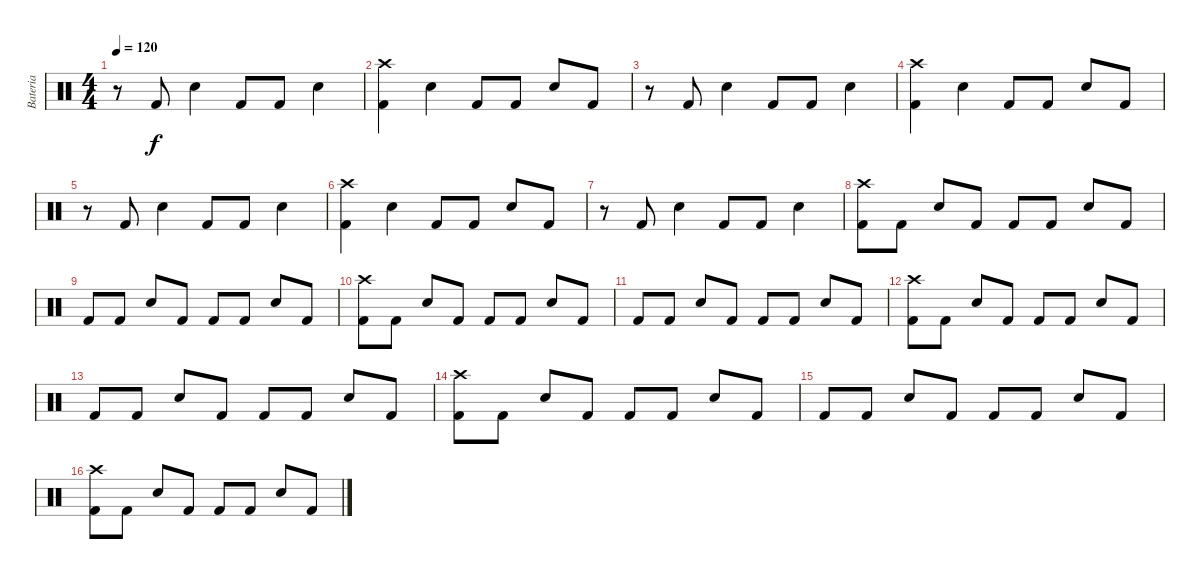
\track ("Bateria" "Bateria") {instrument percussion}
\staff {score}
\articulation defaults
\ts (4 4)
\tempo 120
\clef neutral
\ks c
r.8{dy f} "Kick (hit) 2".8 "Snare (hit) 2".4 "Kick (hit) 2".8 "Kick (hit) 2".8 "Snare (hit) 2".4 |
("Kick (hit) 2" "Crash high (hit)").4 "Snare (hit) 2".4 "Kick (hit) 2".8 "Kick (hit) 2".8 "Snare (hit) 2".8 "Kick (hit) 2".8 |
r.8 "Kick (hit) 2".8 "Snare (hit) 2".4 "Kick (hit) 2".8 "Kick (hit) 2".8 "Snare (hit) 2".4 |
("Kick (hit) 2" "Crash high (hit)").4 "Snare (hit) 2".4 "Kick (hit) 2".8 "Kick (hit) 2".8 "Snare (hit) 2".8 "Kick (hit) 2".8 |
r.8 "Kick (hit) 2".8 "Snare (hit) 2".4 "Kick (hit) 2".8 "Kick (hit) 2".8 "Snare (hit) 2".4 |
("Kick (hit) 2" "Crash high (hit)").4 "Snare (hit) 2".4 "Kick (hit) 2".8 "Kick (hit) 2".8 "Snare (hit) 2".8 "Kick (hit) 2".8 |
r.8 "Kick (hit) 2".8 "Snare (hit) 2".4 "Kick (hit) 2".8 "Kick (hit) 2".8 "Snare (hit) 2".4 |
("Kick (hit) 2" "Crash high (hit)").8 "Kick (hit) 2".8 "Snare (hit) 2".8 "Kick (hit) 2".8 "Kick (hit) 2".8 "Kick (hit) 2".8 "Snare (hit) 2".8 "Kick (hit) 2".8 |
"Kick (hit) 2".8 "Kick (hit) 2".8 "Snare (hit) 2".8 "Kick (hit) 2".8 "Kick (hit) 2".8 "Kick (hit) 2".8 "Snare (hit) 2".8 "Kick (hit) 2".8 |
("Kick (hit) 2" "Crash high (hit)").8 "Kick (hit) 2".8 "Snare (hit) 2".8 "Kick (hit) 2".8 "Kick (hit) 2".8 "Kick (hit) 2".8 "Snare (hit) 2".8 "Kick (hit) 2".8 |
"Kick (hit) 2".8 "Kick (hit) 2".8 "Snare (hit) 2".8 "Kick (hit) 2".8 "Kick (hit) 2".8 "Kick (hit) 2".8 "Snare (hit) 2".8 "Kick (hit) 2".8 |
("Kick (hit) 2" "Crash high (hit)").8 "Kick (hit) 2".8 "Snare (hit) 2".8 "Kick (hit) 2".8 "Kick (hit) 2".8 "Kick (hit) 2".8 "Snare (hit) 2".8 "Kick (hit) 2".8 |
"Kick (hit) 2".8 "Kick (hit) 2".8 "Snare (hit) 2".8 "Kick (hit) 2".8 "Kick (hit) 2".8 "Kick (hit) 2".8 "Snare (hit) 2".8 "Kick (hit) 2".8 |
("Kick (hit) 2" "Crash high (hit)").8 "Kick (hit) 2".8 "Snare (hit) 2".8 "Kick (hit) 2".8 "Kick (hit) 2".8 "Kick (hit) 2".8 "Snare (hit) 2".8 "Kick (hit) 2".8 |
"Kick (hit) 2".8 "Kick (hit) 2".8 "Snare (hit) 2".8 "Kick (hit) 2".8 "Kick (hit) 2".8 "Kick (hit) 2".8 "Snare (hit) 2".8 "Kick (hit) 2".8 |
("Kick (hit) 2" "Crash high (hit)").8 "Kick (hit) 2".8 "Snare (hit) 2".8 "Kick (hit) 2".8 "Kick (hit) 2".8 "Kick (hit) 2".8 "Snare (hit) 2".8 "Kick (hit) 2".8
